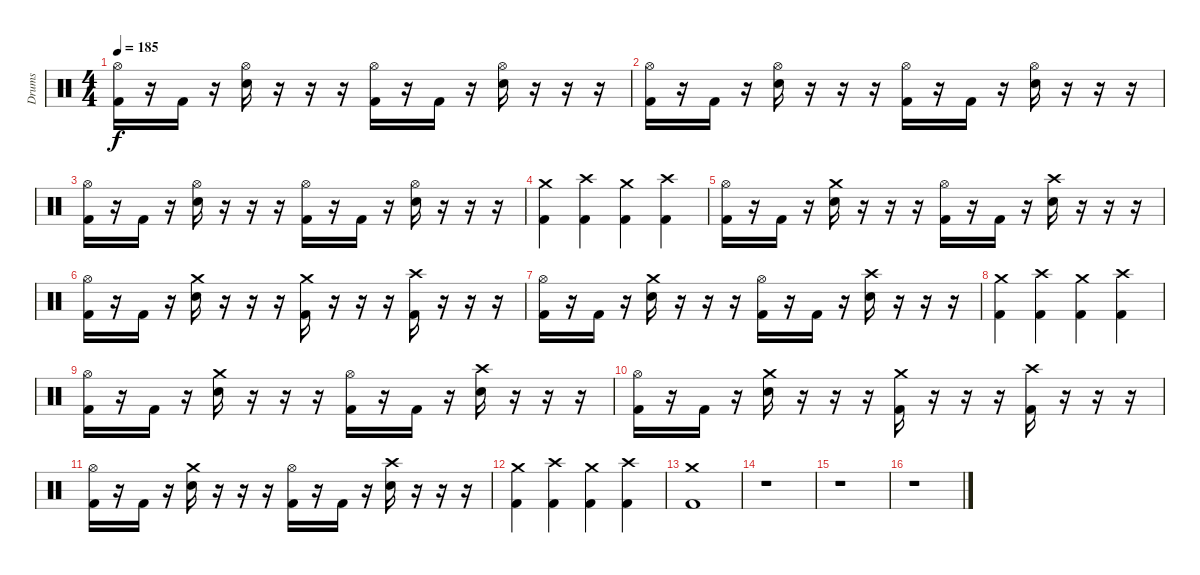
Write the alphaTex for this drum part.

\track ("Drums" "Drums") {instrument percussion}
\staff {score}
\articulation defaults
\ts (4 4)
\tempo 185
\clef neutral
\ks c
("Hi-Hat (open)" "Kick (hit) 2").16{dy f} r.16 "Kick (hit) 2".16 r.16 ("Hi-Hat (open)" "Electric Snare (hit)").16 r.16 r.16 r.16 ("Hi-Hat (open)" "Kick (hit) 2").16 r.16 "Kick (hit) 2".16 r.16 ("Hi-Hat (open)" "Electric Snare (hit)").16 r.16 r.16 r.16 |
("Hi-Hat (open)" "Kick (hit) 2").16 r.16 "Kick (hit) 2".16 r.16 ("Hi-Hat (open)" "Electric Snare (hit)").16 r.16 r.16 r.16 ("Hi-Hat (open)" "Kick (hit) 2").16 r.16 "Kick (hit) 2".16 r.16 ("Hi-Hat (open)" "Electric Snare (hit)").16 r.16 r.16 r.16 |
("Hi-Hat (open)" "Kick (hit) 2").16 r.16 "Kick (hit) 2".16 r.16 ("Hi-Hat (open)" "Electric Snare (hit)").16 r.16 r.16 r.16 ("Hi-Hat (open)" "Kick (hit) 2").16 r.16 "Kick (hit) 2".16 r.16 ("Hi-Hat (open)" "Electric Snare (hit)").16 r.16 r.16 r.16 |
("Crash medium (hit)" "Kick (hit) 2").4 ("Crash high (hit)" "Kick (hit) 2").4 ("Crash medium (hit)" "Kick (hit) 2").4 ("Crash high (hit)" "Kick (hit) 2").4 |
("Hi-Hat (open)" "Kick (hit) 2").16 r.16 "Kick (hit) 2".16 r.16 ("Crash medium (hit)" "Electric Snare (hit)").16 r.16 r.16 r.16 ("Hi-Hat (open)" "Kick (hit) 2").16 r.16 "Kick (hit) 2".16 r.16 ("Crash high (hit)" "Electric Snare (hit)").16 r.16 r.16 r.16 |
("Hi-Hat (open)" "Kick (hit) 2").16 r.16 "Kick (hit) 2".16 r.16 ("Crash medium (hit)" "Electric Snare (hit)").16 r.16 r.16 r.16 ("Crash medium (hit)" "Kick (hit) 2").16 r.16 r.16 r.16 ("Crash high (hit)" "Kick (hit) 2").16 r.16 r.16 r.16 |
("Hi-Hat (open)" "Kick (hit) 2").16 r.16 "Kick (hit) 2".16 r.16 ("Crash medium (hit)" "Electric Snare (hit)").16 r.16 r.16 r.16 ("Hi-Hat (open)" "Kick (hit) 2").16 r.16 "Kick (hit) 2".16 r.16 ("Crash high (hit)" "Electric Snare (hit)").16 r.16 r.16 r.16 |
("Crash medium (hit)" "Kick (hit) 2").4 ("Crash high (hit)" "Kick (hit) 2").4 ("Crash medium (hit)" "Kick (hit) 2").4 ("Crash high (hit)" "Kick (hit) 2").4 |
("Hi-Hat (open)" "Kick (hit) 2").16 r.16 "Kick (hit) 2".16 r.16 ("Crash medium (hit)" "Electric Snare (hit)").16 r.16 r.16 r.16 ("Hi-Hat (open)" "Kick (hit) 2").16 r.16 "Kick (hit) 2".16 r.16 ("Crash high (hit)" "Electric Snare (hit)").16 r.16 r.16 r.16 |
("Hi-Hat (open)" "Kick (hit) 2").16 r.16 "Kick (hit) 2".16 r.16 ("Crash medium (hit)" "Electric Snare (hit)").16 r.16 r.16 r.16 ("Crash medium (hit)" "Kick (hit) 2").16 r.16 r.16 r.16 ("Crash high (hit)" "Kick (hit) 2").16 r.16 r.16 r.16 |
("Hi-Hat (open)" "Kick (hit) 2").16 r.16 "Kick (hit) 2".16 r.16 ("Crash medium (hit)" "Electric Snare (hit)").16 r.16 r.16 r.16 ("Hi-Hat (open)" "Kick (hit) 2").16 r.16 "Kick (hit) 2".16 r.16 ("Crash high (hit)" "Electric Snare (hit)").16 r.16 r.16 r.16 |
("Crash medium (hit)" "Kick (hit) 2").4 ("Crash high (hit)" "Kick (hit) 2").4 ("Crash medium (hit)" "Kick (hit) 2").4 ("Crash high (hit)" "Kick (hit) 2").4 |
("Crash medium (hit)" "Kick (hit) 2").1 |
r.1 |
r.1 |
r.1
